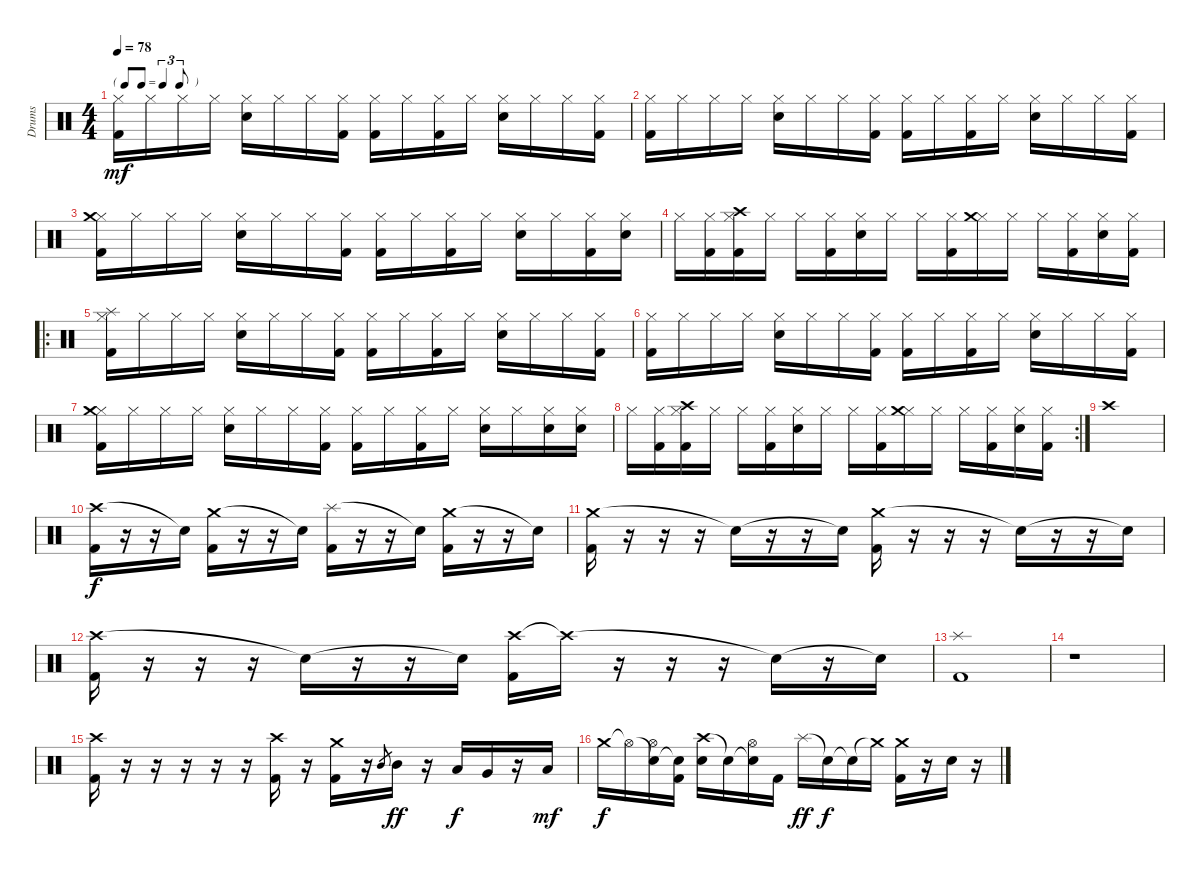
\track ("Drums" "Drums") {instrument percussion}
\staff {score}
\articulation defaults
\ts (4 4)
\tf triplet8th
\tempo 78
\clef neutral
\ks c
("Hi-Hat (closed)" "Kick (hit) 2").16{dy mf} "Hi-Hat (closed)".16 "Hi-Hat (closed)".16 "Hi-Hat (closed)".16 ("Hi-Hat (closed)" "Electric Snare (hit)").16 "Hi-Hat (closed)".16 "Hi-Hat (closed)".16 ("Hi-Hat (closed)" "Kick (hit) 2").16 ("Hi-Hat (closed)" "Kick (hit) 2").16 "Hi-Hat (closed)".16 ("Hi-Hat (closed)" "Kick (hit) 2").16 "Hi-Hat (closed)".16 ("Hi-Hat (closed)" "Electric Snare (hit)").16 "Hi-Hat (closed)".16 "Hi-Hat (closed)".16 ("Hi-Hat (closed)" "Kick (hit) 2").16 |
("Hi-Hat (closed)" "Kick (hit) 2").16 "Hi-Hat (closed)".16 "Hi-Hat (closed)".16 "Hi-Hat (closed)".16 ("Hi-Hat (closed)" "Electric Snare (hit)").16 "Hi-Hat (closed)".16 "Hi-Hat (closed)".16 ("Hi-Hat (closed)" "Kick (hit) 2").16 ("Hi-Hat (closed)" "Kick (hit) 2").16 "Hi-Hat (closed)".16 ("Hi-Hat (closed)" "Kick (hit) 2").16 "Hi-Hat (closed)".16 ("Hi-Hat (closed)" "Electric Snare (hit)").16 "Hi-Hat (closed)".16 "Hi-Hat (closed)".16 ("Hi-Hat (closed)" "Kick (hit) 2").16 |
("Hi-Hat (closed)" "Crash medium (hit)" "Kick (hit) 2").16 "Hi-Hat (closed)".16 "Hi-Hat (closed)".16 "Hi-Hat (closed)".16 ("Hi-Hat (closed)" "Electric Snare (hit)").16 "Hi-Hat (closed)".16 "Hi-Hat (closed)".16 ("Hi-Hat (closed)" "Kick (hit) 2").16 ("Hi-Hat (closed)" "Kick (hit) 2").16 "Hi-Hat (closed)".16 ("Hi-Hat (closed)" "Kick (hit) 2").16 "Hi-Hat (closed)".16 ("Hi-Hat (closed)" "Electric Snare (hit)").16 "Hi-Hat (closed)".16 ("Hi-Hat (closed)" "Kick (hit) 2").16 ("Hi-Hat (closed)" "Electric Snare (hit)").16 |
"Hi-Hat (closed)".16 ("Hi-Hat (closed)" "Kick (hit) 2").16 ("Hi-Hat (closed)" "Crash high (hit)" "Kick (hit) 2").16 "Hi-Hat (closed)".16 "Hi-Hat (closed)".16 ("Hi-Hat (closed)" "Kick (hit) 2").16 ("Hi-Hat (closed)" "Electric Snare (hit)").16 "Hi-Hat (closed)".16 "Hi-Hat (closed)".16 ("Hi-Hat (closed)" "Kick (hit) 2").16 ("Hi-Hat (closed)" "Crash medium (hit)").16 "Hi-Hat (closed)".16 "Hi-Hat (closed)".16 ("Hi-Hat (closed)" "Kick (hit) 2").16 ("Hi-Hat (closed)" "Electric Snare (hit)").16 ("Hi-Hat (closed)" "Kick (hit) 2").16 |
\ro
("Hi-Hat (closed)" "Splash (hit)" "Kick (hit) 2").16 "Hi-Hat (closed)".16 "Hi-Hat (closed)".16 "Hi-Hat (closed)".16 ("Hi-Hat (closed)" "Electric Snare (hit)").16 "Hi-Hat (closed)".16 "Hi-Hat (closed)".16 ("Hi-Hat (closed)" "Kick (hit) 2").16 ("Hi-Hat (closed)" "Kick (hit) 2").16 "Hi-Hat (closed)".16 ("Hi-Hat (closed)" "Kick (hit) 2").16 "Hi-Hat (closed)".16 ("Hi-Hat (closed)" "Electric Snare (hit)").16 "Hi-Hat (closed)".16 "Hi-Hat (closed)".16 ("Hi-Hat (closed)" "Kick (hit) 2").16 |
("Hi-Hat (closed)" "Kick (hit) 2").16 "Hi-Hat (closed)".16 "Hi-Hat (closed)".16 "Hi-Hat (closed)".16 ("Hi-Hat (closed)" "Electric Snare (hit)").16 "Hi-Hat (closed)".16 "Hi-Hat (closed)".16 ("Hi-Hat (closed)" "Kick (hit) 2").16 ("Hi-Hat (closed)" "Kick (hit) 2").16 "Hi-Hat (closed)".16 ("Hi-Hat (closed)" "Kick (hit) 2").16 "Hi-Hat (closed)".16 ("Hi-Hat (closed)" "Electric Snare (hit)").16 "Hi-Hat (closed)".16 "Hi-Hat (closed)".16 ("Hi-Hat (closed)" "Kick (hit) 2").16 |
("Hi-Hat (closed)" "Crash medium (hit)" "Kick (hit) 2").16 "Hi-Hat (closed)".16 "Hi-Hat (closed)".16 "Hi-Hat (closed)".16 ("Hi-Hat (closed)" "Electric Snare (hit)").16 "Hi-Hat (closed)".16 "Hi-Hat (closed)".16 ("Hi-Hat (closed)" "Kick (hit) 2").16 ("Hi-Hat (closed)" "Kick (hit) 2").16 "Hi-Hat (closed)".16 ("Hi-Hat (closed)" "Kick (hit) 2").16 "Hi-Hat (closed)".16 ("Hi-Hat (closed)" "Electric Snare (hit)").16 "Hi-Hat (closed)".16 ("Hi-Hat (closed)" "Electric Snare (hit)").16 ("Hi-Hat (closed)" "Electric Snare (hit)").16 |
\rc 2 "Hi-Hat (closed)".16
("Hi-Hat (closed)" "Kick (hit) 2").16 ("Hi-Hat (closed)" "Crash high (hit)" "Kick (hit) 2").16 "Hi-Hat (closed)".16 "Hi-Hat (closed)".16 ("Hi-Hat (closed)" "Kick (hit) 2").16 ("Hi-Hat (closed)" "Electric Snare (hit)").16 "Hi-Hat (closed)".16 "Hi-Hat (closed)".16 ("Hi-Hat (closed)" "Kick (hit) 2").16 ("Hi-Hat (closed)" "Crash medium (hit)").16 "Hi-Hat (closed)".16 "Hi-Hat (closed)".16 ("Hi-Hat (closed)" "Kick (hit) 2").16 ("Hi-Hat (closed)" "Electric Snare (hit)").16 ("Hi-Hat (closed)" "Kick (hit) 2").16 |
"Crash high (hit)".1 |
("Crash high (hit)" "Kick (hit) 2").16{dy f} r.16 r.16 "Snare (hit)"{t}.16 ("Crash medium (hit)" "Kick (hit) 2").16 r.16 r.16 "Snare (hit)"{t}.16 ("Splash (hit)" "Kick (hit) 2").16 r.16 r.16 "Snare (hit)"{t}.16 ("Crash medium (hit)" "Kick (hit) 2").16 r.16 r.16 "Snare (hit)"{t}.16 |
("Crash medium (hit)" "Kick (hit) 2").16 r.16 r.16 r.16 "Snare (hit)"{t}.16 r.16 r.16 "Snare (hit)"{t}.16 ("Crash medium (hit)" "Kick (hit) 2").16 r.16 r.16 r.16 "Snare (hit)"{t}.16 r.16 r.16 "Snare (hit)"{t}.16 |
("Crash high (hit)" "Kick (hit) 2").16 r.16 r.16 r.16 "Snare (hit)"{t}.16 r.16 r.16 "Snare (hit)"{t}.16 ("Crash high (hit)" "Kick (hit) 2").16 "Crash high (hit)"{t}.16 r.16 r.16 r.16 "Snare (hit)"{t}.16 r.16 "Snare (hit)"{t}.16 |
("Splash (hit)" "Kick (hit) 2").1 |
r.1 |
("Crash high (hit)" "Kick (hit) 2").16 r.16 r.16 r.16 r.16 r.16 ("Crash high (hit)" "Kick (hit) 2").16 r.16 ("Crash medium (hit)" "Kick (hit) 2").16 r.16 "Mid Tom (hit)".8{gr} "Mid Tom (hit)".16{dy ff} r.16 "Low Tom (hit)".16{dy f} "Very Low Tom (hit)".16 r.16 "Low Floor Tom (hit)".16{dy mf} |
"Crash medium (hit)".16{dy f} "Hi-Hat (open)"{t}.16 ("Snare (hit)"{t} "Hi-Hat (open)").16 ("Snare (hit)"{t} "Kick (hit) 2").16 ("Crash high (hit)" "Electric Snare (hit)").16 "Snare (hit)"{t}.16 ("Snare (hit)"{t} "Hi-Hat (open)").16 "Kick (hit) 2".16 "Splash (hit)".16{dy ff} "Snare (hit)"{t}.16{dy f} "Snare (hit)"{t}.16 "Crash medium (hit)"{t}.16 ("Crash medium (hit)" "Kick (hit) 2").16 r.16 "Electric Snare (hit)".16 r.16
